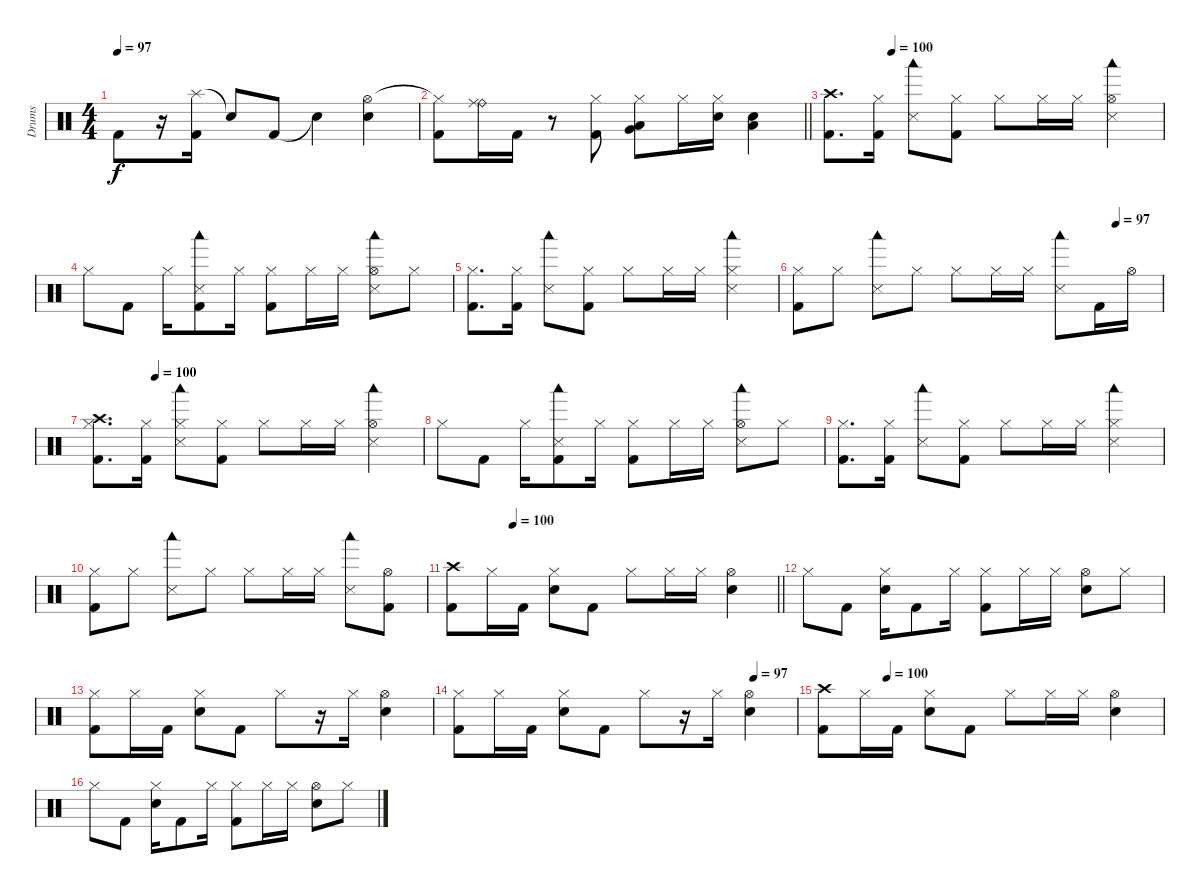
\track ("Drums" "Drums") {instrument percussion}
\staff {score}
\articulation defaults
\ts (4 4)
\tempo 97
\clef neutral
\ks c "Kick (hit) 2".8{dy f}
r.16 ("Splash (hit)" "Kick (hit) 2").16 "Snare (hit)"{t}.8 "Kick (hit) 2".8 "Snare (hit)"{t}.4 ("Hi-Hat (open)" "Electric Snare (hit)").4 |
\barLineRight lightlight
("Hi-Hat (closed)"{t} "Kick (hit) 2").8 ("Ride (bell)" "Ride (middle)").16{volume 16} "Kick (hit) 2".16 r.8 ("Hi-Hat (closed)" "Kick (hit) 2").8 ("Hi-Hat (closed)" "Very Low Tom (hit)" "Low Tom (hit)").8 "Hi-Hat (closed)".16 ("Hi-Hat (closed)" "Electric Snare (hit)").16 ("Low Tom (hit)" "Electric Snare (hit)").4 |
\tempo (100 0.1875)
("Crash high (hit)" "Kick (hit) 2").8{d} ("Hi-Hat (closed)" "Kick (hit) 2").16 ("Woodblock low (hit)" "Snare (side stick) 3").8 ("Hi-Hat (closed)" "Kick (hit) 2").8 "Hi-Hat (closed)".8 "Hi-Hat (closed)".16 "Hi-Hat (closed)".16 ("Hi-Hat (open)" "Woodblock low (hit)" "Snare (side stick) 3").4 |
"Hi-Hat (closed)".8 "Kick (hit) 2".8 "Hi-Hat (closed)".16 ("Woodblock low (hit)" "Snare (side stick) 3" "Kick (hit) 2").8 "Hi-Hat (closed)".16 ("Hi-Hat (closed)" "Kick (hit) 2").8 "Hi-Hat (closed)".16 "Hi-Hat (closed)".16 ("Hi-Hat (open)" "Woodblock low (hit)" "Snare (side stick) 3").8 "Hi-Hat (closed)".8 |
("Hi-Hat (closed)" "Kick (hit) 2").8{d} ("Hi-Hat (closed)" "Kick (hit) 2").16 ("Woodblock low (hit)" "Snare (side stick) 3").8 ("Hi-Hat (closed)" "Kick (hit) 2").8 "Hi-Hat (closed)".8 "Hi-Hat (closed)".16 "Hi-Hat (closed)".16 ("Hi-Hat (closed)" "Woodblock low (hit)" "Snare (side stick) 3").4 |
\tempo (97 0.875)
("Hi-Hat (closed)" "Kick (hit) 2").8 "Hi-Hat (closed)".8 ("Woodblock low (hit)" "Snare (side stick) 3").8 "Hi-Hat (closed)".8 "Hi-Hat (closed)".8 "Hi-Hat (closed)".16 "Hi-Hat (closed)".16 ("Woodblock low (hit)" "Snare (side stick) 3").8 "Kick (hit) 2".16 "Hi-Hat (open)".16 |
\tempo (100 0.1875)
("Crash high (hit)" "Hi-Hat (closed)" "Kick (hit) 2").8{d} ("Hi-Hat (closed)" "Kick (hit) 2").16 ("Hi-Hat (closed)" "Woodblock low (hit)" "Snare (side stick) 3").8 ("Hi-Hat (closed)" "Kick (hit) 2").8 "Hi-Hat (closed)".8 "Hi-Hat (closed)".16 "Hi-Hat (closed)".16 ("Hi-Hat (open)" "Woodblock low (hit)" "Snare (side stick) 3").4 |
"Hi-Hat (closed)".8 "Kick (hit) 2".8 "Hi-Hat (closed)".16 ("Woodblock low (hit)" "Snare (side stick) 3" "Kick (hit) 2").8 "Hi-Hat (closed)".16 ("Hi-Hat (closed)" "Kick (hit) 2").8 "Hi-Hat (closed)".16 "Hi-Hat (closed)".16 ("Hi-Hat (open)" "Woodblock low (hit)" "Snare (side stick) 3").8 "Hi-Hat (closed)".8 |
("Hi-Hat (closed)" "Kick (hit) 2").8{d} ("Hi-Hat (closed)" "Kick (hit) 2").16 ("Woodblock low (hit)" "Snare (side stick) 3").8 ("Hi-Hat (closed)" "Kick (hit) 2").8 "Hi-Hat (closed)".8 "Hi-Hat (closed)".16 "Hi-Hat (closed)".16 ("Hi-Hat (closed)" "Woodblock low (hit)" "Snare (side stick) 3").4 |
("Hi-Hat (closed)" "Kick (hit) 2").8 "Hi-Hat (closed)".8 ("Woodblock low (hit)" "Snare (side stick) 3").8 "Hi-Hat (closed)".8 "Hi-Hat (closed)".8 "Hi-Hat (closed)".16 "Hi-Hat (closed)".16 ("Woodblock low (hit)" "Snare (side stick) 3").8 ("Hi-Hat (open)" "Kick (hit) 2").8 |
\tempo (100 0.1875)
\barLineRight lightlight
("Crash high (hit)" "Kick (hit) 2").8 "Hi-Hat (closed)".16 "Kick (hit) 2".16 ("Hi-Hat (closed)" "Electric Snare (hit)").8 "Kick (hit) 2".8 "Hi-Hat (closed)".8 "Hi-Hat (closed)".16 "Hi-Hat (closed)".16 ("Hi-Hat (open)" "Electric Snare (hit)").4 |
"Hi-Hat (closed)".8 "Kick (hit) 2".8 ("Hi-Hat (closed)" "Electric Snare (hit)").16 "Kick (hit) 2".8 "Hi-Hat (closed)".16 ("Hi-Hat (closed)" "Kick (hit) 2").8 "Hi-Hat (closed)".16 "Hi-Hat (closed)".16 ("Hi-Hat (open)" "Electric Snare (hit)").8 "Hi-Hat (closed)".8 |
("Hi-Hat (closed)" "Kick (hit) 2").8 "Hi-Hat (closed)".16 "Kick (hit) 2".16 ("Hi-Hat (closed)" "Electric Snare (hit)").8 "Kick (hit) 2".8 "Hi-Hat (closed)".8 r.16 "Hi-Hat (closed)".16 ("Hi-Hat (open)" "Electric Snare (hit)").4 |
\tempo (97 0.875)
("Hi-Hat (closed)" "Kick (hit) 2").8 "Hi-Hat (closed)".16 "Kick (hit) 2".16 ("Hi-Hat (closed)" "Electric Snare (hit)").8 "Kick (hit) 2".8 "Hi-Hat (closed)".8 r.16 "Hi-Hat (closed)".16 ("Hi-Hat (open)" "Electric Snare (hit)").4 |
\tempo (100 0.1875)
("Crash high (hit)" "Kick (hit) 2").8 "Hi-Hat (closed)".16 "Kick (hit) 2".16 ("Hi-Hat (closed)" "Electric Snare (hit)").8 "Kick (hit) 2".8 "Hi-Hat (closed)".8 "Hi-Hat (closed)".16 "Hi-Hat (closed)".16 ("Hi-Hat (open)" "Electric Snare (hit)").4 |
"Hi-Hat (closed)".8 "Kick (hit) 2".8 ("Hi-Hat (closed)" "Electric Snare (hit)").16 "Kick (hit) 2".8 "Hi-Hat (closed)".16 ("Hi-Hat (closed)" "Kick (hit) 2").8 "Hi-Hat (closed)".16 "Hi-Hat (closed)".16 ("Hi-Hat (open)" "Electric Snare (hit)").8 "Hi-Hat (closed)".8
